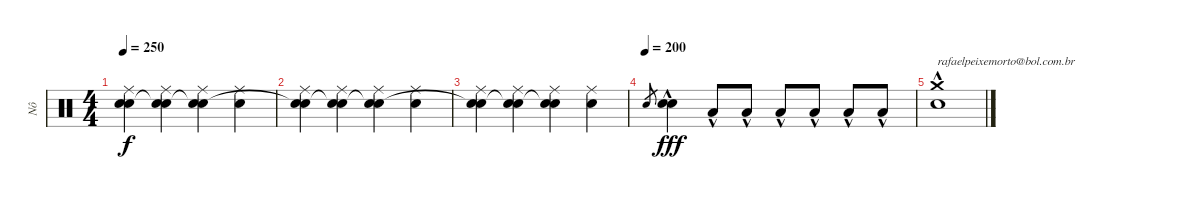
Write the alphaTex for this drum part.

\track ("Nô" "Nô") {instrument percussion}
\staff {score}
\articulation defaults
\ts (4 4)
\tempo 250
\clef neutral
\ks c
("Ride (middle)" "Electric Snare (hit)" "Snare (hit)"{t}).4{dy f} ("Ride (middle)" "Electric Snare (hit)" "Snare (hit)"{t}).4 ("Ride (middle)" "Electric Snare (hit)" "Snare (hit)"{t}).4 ("Ride (middle)" "Electric Snare (hit)").4 |
("Ride (middle)" "Electric Snare (hit)" "Snare (hit)"{t}).4 ("Ride (middle)" "Electric Snare (hit)" "Snare (hit)"{t}).4 ("Ride (middle)" "Electric Snare (hit)" "Snare (hit)"{t}).4 ("Ride (middle)" "Electric Snare (hit)").4 |
("Ride (middle)" "Electric Snare (hit)" "Snare (hit)"{t}).4 ("Ride (middle)" "Electric Snare (hit)" "Snare (hit)"{t}).4 ("Ride (middle)" "Electric Snare (hit)" "Snare (hit)"{t}).4 ("Ride (middle)" "Electric Snare (hit)").4 |
\tempo (200)
"Electric Snare (hit)".8{gr} ("Electric Snare (hit)"{hac} "Electric Snare (hit)").4{dy fff} "Low Tom (hit)"{hac}.8 "Low Tom (hit)"{hac}.8 "Low Tom (hit)"{hac}.8 "Low Tom (hit)"{hac}.8 "Low Tom (hit)"{hac}.8 "Low Tom (hit)"{hac}.8 |
("Crash medium (hit)"{hac} "Electric Snare (hit)"{hac}).1{txt "rafaelpeixemorto@bol.com.br"}
